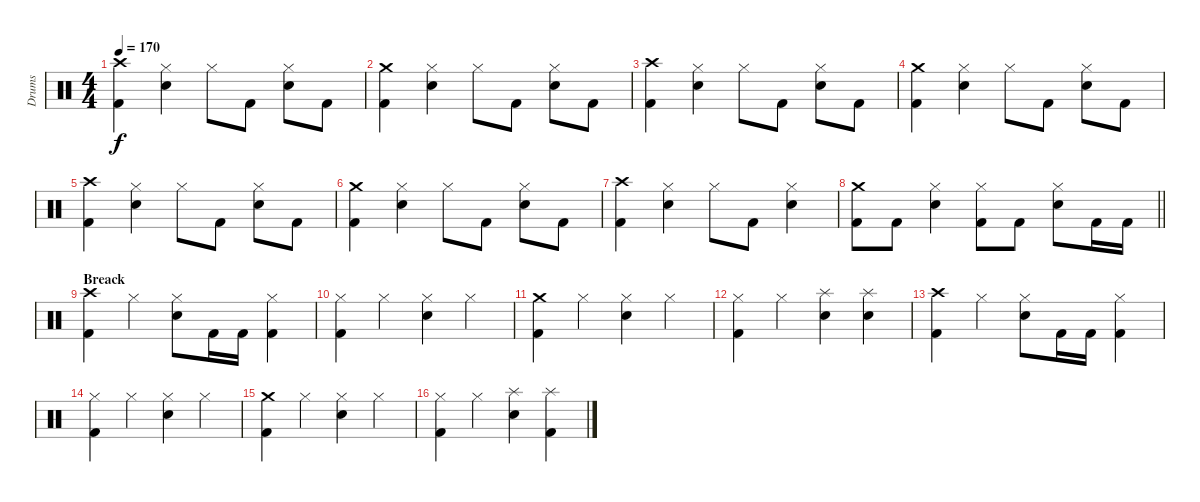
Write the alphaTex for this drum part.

\track ("Drums" "Drums") {instrument percussion}
\staff {score}
\articulation defaults
\ts (4 4)
\tempo 170
\clef neutral
\ks c
("Kick (hit) 2" "Crash high (hit)").4{dy f} ("Hi-Hat (closed)" "Electric Snare (hit)").4 "Hi-Hat (closed)".8 "Kick (hit) 2".8 ("Hi-Hat (closed)" "Electric Snare (hit)").8 "Kick (hit) 2".8 |
("Kick (hit) 2" "Crash medium (hit)").4 ("Hi-Hat (closed)" "Electric Snare (hit)").4 "Hi-Hat (closed)".8 "Kick (hit) 2".8 ("Hi-Hat (closed)" "Electric Snare (hit)").8 "Kick (hit) 2".8 |
("Kick (hit) 2" "Crash high (hit)").4 ("Hi-Hat (closed)" "Electric Snare (hit)").4 "Hi-Hat (closed)".8 "Kick (hit) 2".8 ("Hi-Hat (closed)" "Electric Snare (hit)").8 "Kick (hit) 2".8 |
("Kick (hit) 2" "Crash medium (hit)").4 ("Hi-Hat (closed)" "Electric Snare (hit)").4 "Hi-Hat (closed)".8 "Kick (hit) 2".8 ("Hi-Hat (closed)" "Electric Snare (hit)").8 "Kick (hit) 2".8 |
("Kick (hit) 2" "Crash high (hit)").4 ("Hi-Hat (closed)" "Electric Snare (hit)").4 "Hi-Hat (closed)".8 "Kick (hit) 2".8 ("Hi-Hat (closed)" "Electric Snare (hit)").8 "Kick (hit) 2".8 |
("Kick (hit) 2" "Crash medium (hit)").4 ("Hi-Hat (closed)" "Electric Snare (hit)").4 "Hi-Hat (closed)".8 "Kick (hit) 2".8 ("Hi-Hat (closed)" "Electric Snare (hit)").8 "Kick (hit) 2".8 |
("Kick (hit) 2" "Crash high (hit)").4 ("Hi-Hat (closed)" "Electric Snare (hit)").4 "Hi-Hat (closed)".8 "Kick (hit) 2".8 ("Hi-Hat (closed)" "Electric Snare (hit)").4 |
\barLineRight lightlight
("Kick (hit) 2" "Crash medium (hit)").8 "Kick (hit) 2".8 ("Hi-Hat (closed)" "Electric Snare (hit)").4 ("Kick (hit) 2" "Hi-Hat (closed)").8 "Kick (hit) 2".8 ("Hi-Hat (closed)" "Electric Snare (hit)").8 "Kick (hit) 2".16 "Kick (hit) 2".16 |
\section ("" "Breack")
("Kick (hit) 2" "Crash high (hit)").4 "Hi-Hat (closed)".4 ("Hi-Hat (closed)" "Electric Snare (hit)").8 "Kick (hit) 2".16 "Kick (hit) 2".16 ("Kick (hit) 2" "Hi-Hat (closed)").4 |
("Kick (hit) 2" "Hi-Hat (closed)").4 "Hi-Hat (closed)".4 ("Hi-Hat (closed)" "Electric Snare (hit)").4 "Hi-Hat (closed)".4 |
("Kick (hit) 2" "Crash medium (hit)").4 "Hi-Hat (closed)".4 ("Hi-Hat (closed)" "Electric Snare (hit)").4 "Hi-Hat (closed)".4 |
("Kick (hit) 2" "Hi-Hat (closed)").4 "Hi-Hat (closed)".4 ("Splash (hit)" "Electric Snare (hit)").4 ("Splash (hit)" "Electric Snare (hit)").4 |
("Kick (hit) 2" "Crash high (hit)").4 "Hi-Hat (closed)".4 ("Hi-Hat (closed)" "Electric Snare (hit)").8 "Kick (hit) 2".16 "Kick (hit) 2".16 ("Kick (hit) 2" "Hi-Hat (closed)").4 |
("Kick (hit) 2" "Hi-Hat (closed)").4 "Hi-Hat (closed)".4 ("Hi-Hat (closed)" "Electric Snare (hit)").4 "Hi-Hat (closed)".4 |
("Kick (hit) 2" "Crash medium (hit)").4 "Hi-Hat (closed)".4 ("Hi-Hat (closed)" "Electric Snare (hit)").4 "Hi-Hat (closed)".4 |
("Kick (hit) 2" "Hi-Hat (closed)").4 "Hi-Hat (closed)".4 ("Splash (hit)" "Electric Snare (hit)").4 ("Kick (hit) 2" "Splash (hit)").4
